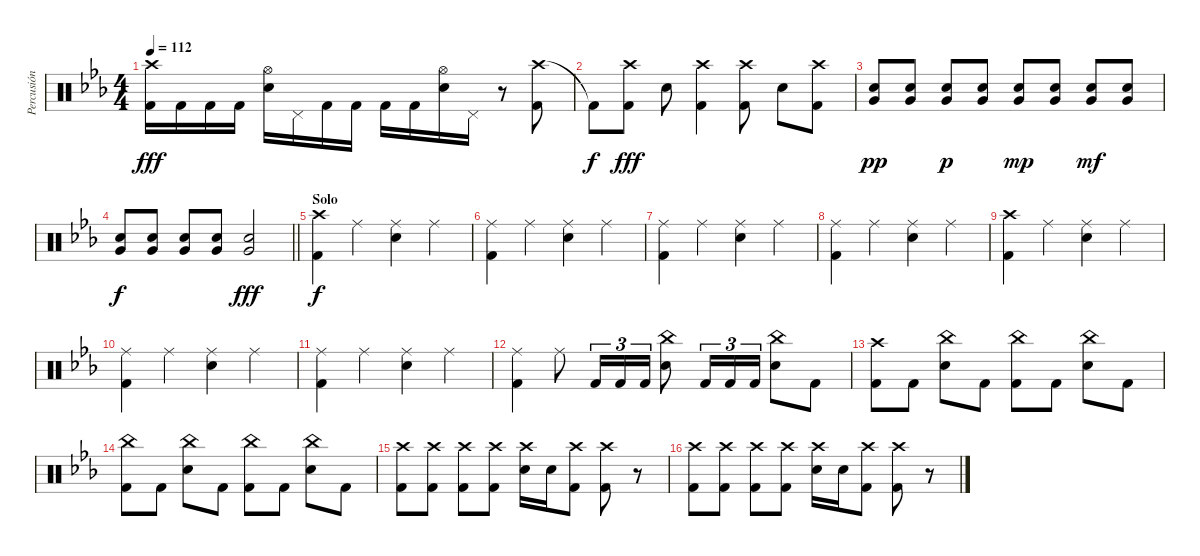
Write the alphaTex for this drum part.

\track ("Percusión" "Percusión") {instrument percussion}
\staff {score}
\articulation defaults
\ts (4 4)
\tempo 112
\clef neutral
\ks cminor
("Crash high (hit)" "Kick (hit) 2").16{dy fff} "Kick (hit) 2".16 "Kick (hit) 2".16 "Kick (hit) 2".16 ("Hi-Hat (open)" "Snare (hit) 2").16 "Pedal Hi-Hat (hit)".16 "Kick (hit) 2".16 "Kick (hit) 2".16 "Kick (hit) 2".16 "Kick (hit) 2".16 ("Hi-Hat (open)" "Snare (hit) 2").16 "Pedal Hi-Hat (hit)".16 r.8 ("Crash high (hit)" "Kick (hit) 2").8 |
"Kick (hit) 2"{t}.8{dy f} ("Crash high (hit)" "Kick (hit) 2").8{dy fff} "Snare (hit) 2".8 ("Crash high (hit)" "Kick (hit) 2").4 ("Crash high (hit)" "Kick (hit) 2").8 "Snare (hit) 2".8 ("Crash high (hit)" "Kick (hit) 2").8 |
("Snare (hit) 2" "Very Low Tom (hit)").8{dy pp} ("Snare (hit) 2" "Very Low Tom (hit)").8 ("Snare (hit) 2" "Very Low Tom (hit)").8{dy p} ("Snare (hit) 2" "Very Low Tom (hit)").8 ("Snare (hit) 2" "Very Low Tom (hit)").8{dy mp} ("Snare (hit) 2" "Very Low Tom (hit)").8 ("Snare (hit) 2" "Very Low Tom (hit)").8{dy mf} ("Snare (hit) 2" "Very Low Tom (hit)").8 |
\barLineRight lightlight
("Snare (hit) 2" "Very Low Tom (hit)").8{dy f} ("Snare (hit) 2" "Very Low Tom (hit)").8 ("Snare (hit) 2" "Very Low Tom (hit)").8 ("Snare (hit) 2" "Very Low Tom (hit)").8 ("Snare (hit) 2" "Very Low Tom (hit)").2{dy fff} |
\section ("" "Solo")
("Crash high (hit)" "Kick (hit) 2").4{dy f} "Ride (middle)".4 ("Ride (middle)" "Snare (hit) 2").4 "Ride (middle)".4 |
("Ride (middle)" "Kick (hit) 2").4 "Ride (middle)".4 ("Ride (middle)" "Snare (hit) 2").4 "Ride (middle)".4 |
("Ride (middle)" "Kick (hit) 2").4 "Ride (middle)".4 ("Ride (middle)" "Snare (hit) 2").4 "Ride (middle)".4 |
("Ride (middle)" "Kick (hit) 2").4 "Ride (middle)".4 ("Ride (middle)" "Snare (hit) 2").4 "Ride (middle)".4 |
("Crash high (hit)" "Kick (hit) 2").4 "Ride (middle)".4 ("Ride (middle)" "Snare (hit) 2").4 "Ride (middle)".4 |
("Ride (middle)" "Kick (hit) 2").4 "Ride (middle)".4 ("Ride (middle)" "Snare (hit) 2").4 "Ride (middle)".4 |
("Ride (middle)" "Kick (hit) 2").4 "Ride (middle)".4 ("Ride (middle)" "Snare (hit) 2").4 "Ride (middle)".4 |
("Ride (middle)" "Kick (hit) 2").4 "Ride (middle)".8 "Kick (hit) 2".16{tu (3 2)} "Kick (hit) 2".16{tu (3 2)} "Kick (hit) 2".16{tu (3 2)} ("China (hit)" "Snare (hit) 2").8 "Kick (hit) 2".16{tu (3 2)} "Kick (hit) 2".16{tu (3 2)} "Kick (hit) 2".16{tu (3 2)} ("China (hit)" "Snare (hit) 2").8 "Kick (hit) 2".8 |
("Crash high (hit)" "Kick (hit) 2").8 "Kick (hit) 2".8 ("China (hit)" "Snare (hit) 2").8 "Kick (hit) 2".8 ("China (hit)" "Kick (hit) 2").8 "Kick (hit) 2".8 ("China (hit)" "Snare (hit) 2").8 "Kick (hit) 2".8 |
("China (hit)" "Kick (hit) 2").8 "Kick (hit) 2".8 ("China (hit)" "Snare (hit) 2").8 "Kick (hit) 2".8 ("China (hit)" "Kick (hit) 2").8 "Kick (hit) 2".8 ("China (hit)" "Snare (hit) 2").8 "Kick (hit) 2".8 |
("Crash high (hit)" "Kick (hit) 2").8 ("Crash high (hit)" "Kick (hit) 2").8 ("Crash high (hit)" "Kick (hit) 2").8 ("Crash high (hit)" "Kick (hit) 2").8 ("Crash high (hit)" "Snare (hit) 2").16 "Snare (hit) 2".16 ("Crash high (hit)" "Kick (hit) 2").8 ("Crash high (hit)" "Kick (hit) 2").8 r.8 |
("Crash high (hit)" "Kick (hit) 2").8 ("Crash high (hit)" "Kick (hit) 2").8 ("Crash high (hit)" "Kick (hit) 2").8 ("Crash high (hit)" "Kick (hit) 2").8 ("Crash high (hit)" "Snare (hit) 2").16 "Snare (hit) 2".16 ("Crash high (hit)" "Kick (hit) 2").8 ("Crash high (hit)" "Kick (hit) 2").8 r.8
